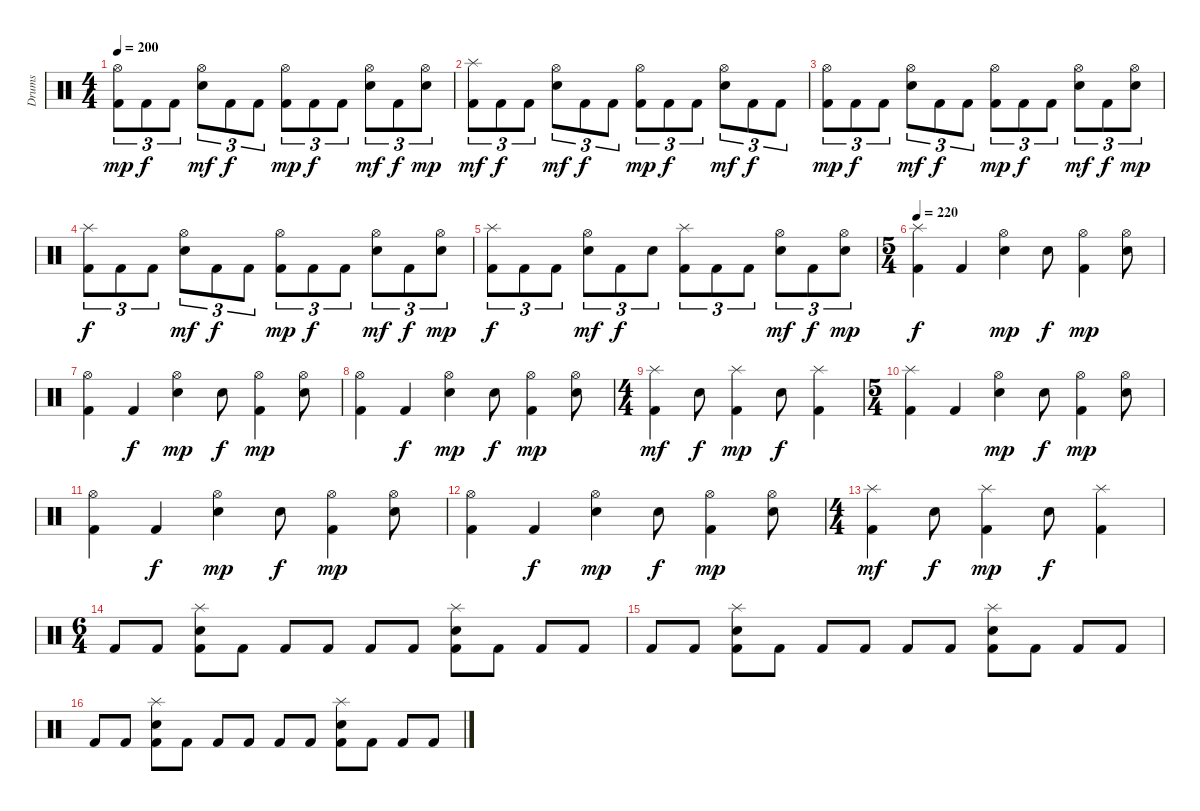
\track ("Drums" "Drums") {instrument percussion}
\staff {score}
\articulation defaults
\ts (4 4)
\tempo 200
\clef neutral
\ks c
("Hi-Hat (open)" "Kick (hit) 2").8{tu (3 2) dy mp} "Kick (hit) 2".8{tu (3 2) dy f} "Kick (hit) 2".8{tu (3 2)} ("Hi-Hat (open)" "Snare (hit) 2").8{tu (3 2) dy mf} "Kick (hit) 2".8{tu (3 2) dy f} "Kick (hit) 2".8{tu (3 2)} ("Hi-Hat (open)" "Kick (hit) 2").8{tu (3 2) dy mp} "Kick (hit) 2".8{tu (3 2) dy f} "Kick (hit) 2".8{tu (3 2)} ("Hi-Hat (open)" "Snare (hit) 2").8{tu (3 2) dy mf} "Kick (hit) 2".8{tu (3 2) dy f} ("Hi-Hat (open)" "Snare (hit) 2").8{tu (3 2) dy mp} |
("Splash (hit)" "Kick (hit) 2").8{tu (3 2) dy mf} "Kick (hit) 2".8{tu (3 2) dy f} "Kick (hit) 2".8{tu (3 2)} ("Hi-Hat (open)" "Snare (hit) 2").8{tu (3 2) dy mf} "Kick (hit) 2".8{tu (3 2) dy f} "Kick (hit) 2".8{tu (3 2)} ("Hi-Hat (open)" "Kick (hit) 2").8{tu (3 2) dy mp} "Kick (hit) 2".8{tu (3 2) dy f} "Kick (hit) 2".8{tu (3 2)} ("Hi-Hat (open)" "Snare (hit) 2").8{tu (3 2) dy mf} "Kick (hit) 2".8{tu (3 2) dy f} "Kick (hit) 2".8{tu (3 2)} |
("Hi-Hat (open)" "Kick (hit) 2").8{tu (3 2) dy mp} "Kick (hit) 2".8{tu (3 2) dy f} "Kick (hit) 2".8{tu (3 2)} ("Hi-Hat (open)" "Snare (hit) 2").8{tu (3 2) dy mf} "Kick (hit) 2".8{tu (3 2) dy f} "Kick (hit) 2".8{tu (3 2)} ("Hi-Hat (open)" "Kick (hit) 2").8{tu (3 2) dy mp} "Kick (hit) 2".8{tu (3 2) dy f} "Kick (hit) 2".8{tu (3 2)} ("Hi-Hat (open)" "Snare (hit) 2").8{tu (3 2) dy mf} "Kick (hit) 2".8{tu (3 2) dy f} ("Hi-Hat (open)" "Snare (hit) 2").8{tu (3 2) dy mp} |
("Splash (hit)" "Kick (hit) 2").8{tu (3 2) dy f} "Kick (hit) 2".8{tu (3 2)} "Kick (hit) 2".8{tu (3 2)} ("Hi-Hat (open)" "Snare (hit) 2").8{tu (3 2) dy mf} "Kick (hit) 2".8{tu (3 2) dy f} "Kick (hit) 2".8{tu (3 2)} ("Hi-Hat (open)" "Kick (hit) 2").8{tu (3 2) dy mp} "Kick (hit) 2".8{tu (3 2) dy f} "Kick (hit) 2".8{tu (3 2)} ("Hi-Hat (open)" "Snare (hit) 2").8{tu (3 2) dy mf} "Kick (hit) 2".8{tu (3 2) dy f} ("Hi-Hat (open)" "Snare (hit) 2").8{tu (3 2) dy mp} |
("Splash (hit)" "Kick (hit) 2").8{tu (3 2) dy f} "Kick (hit) 2".8{tu (3 2)} "Kick (hit) 2".8{tu (3 2)} ("Hi-Hat (open)" "Snare (hit) 2").8{tu (3 2) dy mf} "Kick (hit) 2".8{tu (3 2) dy f} "Snare (hit) 2".8{tu (3 2)} ("Splash (hit)" "Kick (hit) 2").8{tu (3 2)} "Kick (hit) 2".8{tu (3 2)} "Kick (hit) 2".8{tu (3 2)} ("Hi-Hat (open)" "Snare (hit) 2").8{tu (3 2) dy mf} "Kick (hit) 2".8{tu (3 2) dy f} ("Hi-Hat (open)" "Snare (hit) 2").8{tu (3 2) dy mp} |
\ts (5 4)
\tempo 220
("Splash (hit)" "Kick (hit) 2").4{dy f} "Kick (hit) 2".4 ("Hi-Hat (open)" "Snare (hit) 2").4{dy mp} "Snare (hit) 2".8{dy f} ("Hi-Hat (open)" "Kick (hit) 2").4{dy mp} ("Hi-Hat (open)" "Snare (hit) 2").8 |
("Hi-Hat (open)" "Kick (hit) 2").4 "Kick (hit) 2".4{dy f} ("Hi-Hat (open)" "Snare (hit) 2").4{dy mp} "Snare (hit) 2".8{dy f} ("Hi-Hat (open)" "Kick (hit) 2").4{dy mp} ("Hi-Hat (open)" "Snare (hit) 2").8 |
("Hi-Hat (open)" "Kick (hit) 2").4 "Kick (hit) 2".4{dy f} ("Hi-Hat (open)" "Snare (hit) 2").4{dy mp} "Snare (hit) 2".8{dy f} ("Hi-Hat (open)" "Kick (hit) 2").4{dy mp} ("Hi-Hat (open)" "Snare (hit) 2").8 |
\ts (4 4)
("Splash (hit)" "Kick (hit) 2").4{dy mf} "Snare (hit) 2".8{dy f} ("Splash (hit)" "Kick (hit) 2").4{dy mp} "Snare (hit) 2".8{dy f} ("Splash (hit)" "Kick (hit) 2").4 |
\ts (5 4)
("Splash (hit)" "Kick (hit) 2").4 "Kick (hit) 2".4 ("Hi-Hat (open)" "Snare (hit) 2").4{dy mp} "Snare (hit) 2".8{dy f} ("Hi-Hat (open)" "Kick (hit) 2").4{dy mp} ("Hi-Hat (open)" "Snare (hit) 2").8 |
("Hi-Hat (open)" "Kick (hit) 2").4 "Kick (hit) 2".4{dy f} ("Hi-Hat (open)" "Snare (hit) 2").4{dy mp} "Snare (hit) 2".8{dy f} ("Hi-Hat (open)" "Kick (hit) 2").4{dy mp} ("Hi-Hat (open)" "Snare (hit) 2").8 |
("Hi-Hat (open)" "Kick (hit) 2").4 "Kick (hit) 2".4{dy f} ("Hi-Hat (open)" "Snare (hit) 2").4{dy mp} "Snare (hit) 2".8{dy f} ("Hi-Hat (open)" "Kick (hit) 2").4{dy mp} ("Hi-Hat (open)" "Snare (hit) 2").8 |
\ts (4 4)
("Splash (hit)" "Kick (hit) 2").4{dy mf} "Snare (hit) 2".8{dy f} ("Splash (hit)" "Kick (hit) 2").4{dy mp} "Snare (hit) 2".8{dy f} ("Splash (hit)" "Kick (hit) 2").4 |
\ts (6 4)
"Kick (hit) 2".8 "Kick (hit) 2".8 ("Splash (hit)" "Snare (hit) 2" "Kick (hit) 2").8 "Kick (hit) 2".8 "Kick (hit) 2".8 "Kick (hit) 2".8 "Kick (hit) 2".8 "Kick (hit) 2".8 ("Splash (hit)" "Snare (hit) 2" "Kick (hit) 2").8 "Kick (hit) 2".8 "Kick (hit) 2".8 "Kick (hit) 2".8 |
"Kick (hit) 2".8 "Kick (hit) 2".8 ("Splash (hit)" "Snare (hit) 2" "Kick (hit) 2").8 "Kick (hit) 2".8 "Kick (hit) 2".8 "Kick (hit) 2".8 "Kick (hit) 2".8 "Kick (hit) 2".8 ("Splash (hit)" "Snare (hit) 2" "Kick (hit) 2").8 "Kick (hit) 2".8 "Kick (hit) 2".8 "Kick (hit) 2".8 |
"Kick (hit) 2".8 "Kick (hit) 2".8 ("Splash (hit)" "Snare (hit) 2" "Kick (hit) 2").8 "Kick (hit) 2".8 "Kick (hit) 2".8 "Kick (hit) 2".8 "Kick (hit) 2".8 "Kick (hit) 2".8 ("Splash (hit)" "Snare (hit) 2" "Kick (hit) 2").8 "Kick (hit) 2".8 "Kick (hit) 2".8 "Kick (hit) 2".8
